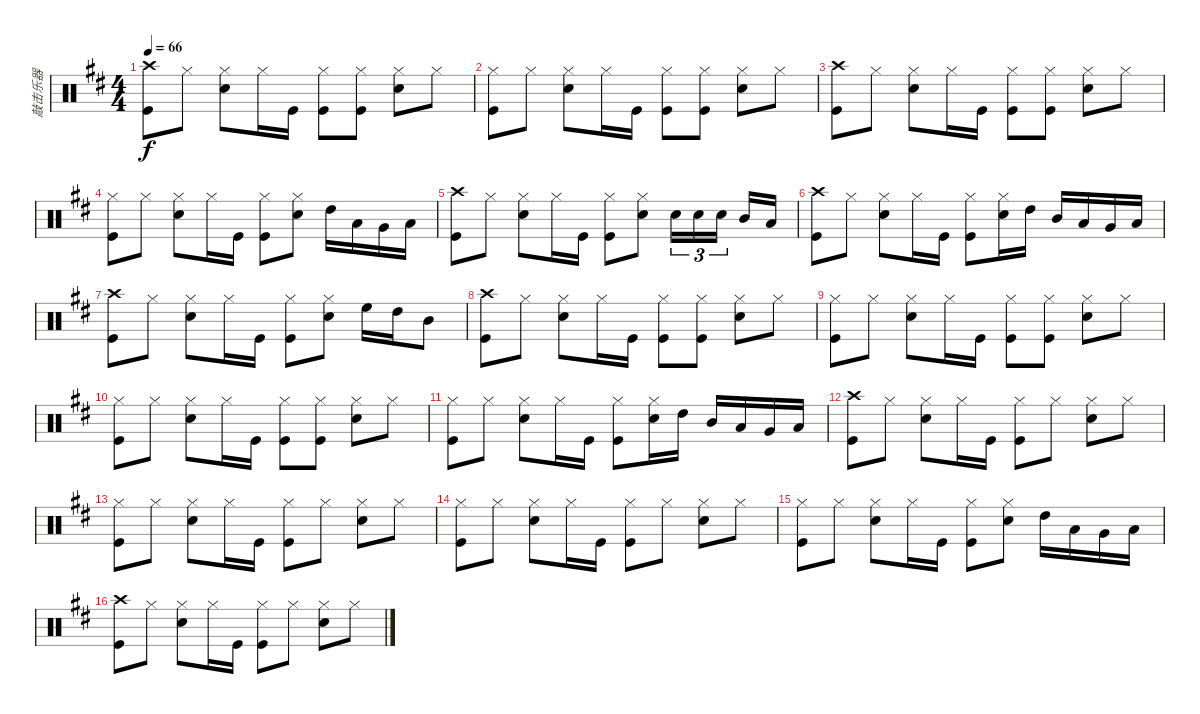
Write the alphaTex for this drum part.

\track ("敲击乐器" "敲击乐器") {instrument percussion}
\staff {score}
\articulation defaults
\ts (4 4)
\tempo 66
\clef neutral
\ks d
("Kick (hit)" "Crash high (hit)").8{dy f} "Hi-Hat (closed)".8 ("Snare (hit) 2" "Hi-Hat (closed)").8 "Hi-Hat (closed)".16 "Kick (hit)".16 ("Kick (hit)" "Hi-Hat (closed)").8 ("Hi-Hat (closed)" "Kick (hit)").8 ("Snare (hit) 2" "Hi-Hat (closed)").8 "Hi-Hat (closed)".8 |
("Hi-Hat (closed)" "Kick (hit)").8 "Hi-Hat (closed)".8 ("Snare (hit) 2" "Hi-Hat (closed)").8 "Hi-Hat (closed)".16 "Kick (hit)".16 ("Kick (hit)" "Hi-Hat (closed)").8 ("Hi-Hat (closed)" "Kick (hit)").8 ("Snare (hit) 2" "Hi-Hat (closed)").8 "Hi-Hat (closed)".8 |
("Crash high (hit)" "Kick (hit)").8 "Hi-Hat (closed)".8 ("Snare (hit) 2" "Hi-Hat (closed)").8 "Hi-Hat (closed)".16 "Kick (hit)".16 ("Kick (hit)" "Hi-Hat (closed)").8 ("Hi-Hat (closed)" "Kick (hit)").8 ("Snare (hit) 2" "Hi-Hat (closed)").8 "Hi-Hat (closed)".8 |
("Hi-Hat (closed)" "Kick (hit)").8 "Hi-Hat (closed)".8 ("Snare (hit) 2" "Hi-Hat (closed)").8 "Hi-Hat (closed)".16 "Kick (hit)".16 ("Kick (hit)" "Hi-Hat (closed)").8 ("Snare (hit) 2" "Hi-Hat (closed)").8 "High Tom (hit)".16 "Low Tom (hit)".16 "Very Low Tom (hit)".16 "Low Floor Tom (hit)".16 |
("Crash high (hit)" "Kick (hit)").8 "Hi-Hat (closed)".8 ("Snare (hit) 2" "Hi-Hat (closed)").8 "Hi-Hat (closed)".16 "Kick (hit)".16 ("Kick (hit)" "Hi-Hat (closed)").8 ("Snare (hit) 2" "Hi-Hat (closed)").8 "Snare (hit) 2".16{tu (3 2)} "Snare (hit) 2".16{tu (3 2)} "Snare (hit) 2".16{tu (3 2) beam splitsecondary} "Mid Tom (hit)".16 "Low Tom (hit)".16 |
("Crash high (hit)" "Kick (hit)").8 "Hi-Hat (closed)".8 ("Snare (hit) 2" "Hi-Hat (closed)").8 "Hi-Hat (closed)".16 "Kick (hit)".16 ("Kick (hit)" "Hi-Hat (closed)").8 ("Snare (hit) 2" "Hi-Hat (closed)").16 "High Tom (hit)".16 "Mid Tom (hit)".16 "Low Tom (hit)".16 "Very Low Tom (hit)".16 "Low Floor Tom (hit)".16 |
("Crash high (hit)" "Kick (hit)").8 "Hi-Hat (closed)".8 ("Snare (hit) 2" "Hi-Hat (closed)").8 "Hi-Hat (closed)".16 "Kick (hit)".16 ("Kick (hit)" "Hi-Hat (closed)").8 ("Snare (hit) 2" "Hi-Hat (closed)").8 "High Floor Tom (hit)".16 "High Tom (hit)".16 "Mid Tom (hit)".8 |
("Kick (hit)" "Crash high (hit)").8 "Hi-Hat (closed)".8 ("Snare (hit) 2" "Hi-Hat (closed)").8 "Hi-Hat (closed)".16 "Kick (hit)".16 ("Kick (hit)" "Hi-Hat (closed)").8 ("Hi-Hat (closed)" "Kick (hit)").8 ("Snare (hit) 2" "Hi-Hat (closed)").8 "Hi-Hat (closed)".8 |
("Hi-Hat (closed)" "Kick (hit)").8 "Hi-Hat (closed)".8 ("Snare (hit) 2" "Hi-Hat (closed)").8 "Hi-Hat (closed)".16 "Kick (hit)".16 ("Kick (hit)" "Hi-Hat (closed)").8 ("Hi-Hat (closed)" "Kick (hit)").8 ("Snare (hit) 2" "Hi-Hat (closed)").8 "Hi-Hat (closed)".8 |
("Hi-Hat (closed)" "Kick (hit)").8 "Hi-Hat (closed)".8 ("Snare (hit) 2" "Hi-Hat (closed)").8 "Hi-Hat (closed)".16 "Kick (hit)".16 ("Kick (hit)" "Hi-Hat (closed)").8 ("Hi-Hat (closed)" "Kick (hit)").8 ("Snare (hit) 2" "Hi-Hat (closed)").8 "Hi-Hat (closed)".8 |
("Hi-Hat (closed)" "Kick (hit)").8 "Hi-Hat (closed)".8 ("Snare (hit) 2" "Hi-Hat (closed)").8 "Hi-Hat (closed)".16 "Kick (hit)".16 ("Kick (hit)" "Hi-Hat (closed)").8 ("Snare (hit) 2" "Hi-Hat (closed)").16 "High Tom (hit)".16 "Mid Tom (hit)".16 "Low Tom (hit)".16 "Very Low Tom (hit)".16 "Low Floor Tom (hit)".16 |
("Kick (hit)" "Crash high (hit)").8 "Hi-Hat (closed)".8 ("Snare (hit) 2" "Hi-Hat (closed)").8 "Hi-Hat (closed)".16 "Kick (hit)".16 ("Kick (hit)" "Hi-Hat (closed)").8 "Hi-Hat (closed)".8 ("Snare (hit) 2" "Hi-Hat (closed)").8 "Hi-Hat (closed)".8 |
("Hi-Hat (closed)" "Kick (hit)").8 "Hi-Hat (closed)".8 ("Snare (hit) 2" "Hi-Hat (closed)").8 "Hi-Hat (closed)".16 "Kick (hit)".16 ("Kick (hit)" "Hi-Hat (closed)").8 "Hi-Hat (closed)".8 ("Snare (hit) 2" "Hi-Hat (closed)").8 "Hi-Hat (closed)".8 |
("Hi-Hat (closed)" "Kick (hit)").8 "Hi-Hat (closed)".8 ("Snare (hit) 2" "Hi-Hat (closed)").8 "Hi-Hat (closed)".16 "Kick (hit)".16 ("Kick (hit)" "Hi-Hat (closed)").8 "Hi-Hat (closed)".8 ("Snare (hit) 2" "Hi-Hat (closed)").8 "Hi-Hat (closed)".8 |
("Hi-Hat (closed)" "Kick (hit)").8 "Hi-Hat (closed)".8 ("Snare (hit) 2" "Hi-Hat (closed)").8 "Hi-Hat (closed)".16 "Kick (hit)".16 ("Kick (hit)" "Hi-Hat (closed)").8 ("Snare (hit) 2" "Hi-Hat (closed)").8 "High Tom (hit)".16 "Low Tom (hit)".16 "Very Low Tom (hit)".16 "Low Floor Tom (hit)".16 |
("Kick (hit)" "Crash high (hit)").8 "Hi-Hat (closed)".8 ("Snare (hit) 2" "Hi-Hat (closed)").8 "Hi-Hat (closed)".16 "Kick (hit)".16 ("Kick (hit)" "Hi-Hat (closed)").8 "Hi-Hat (closed)".8 ("Snare (hit) 2" "Hi-Hat (closed)").8 "Hi-Hat (closed)".8
